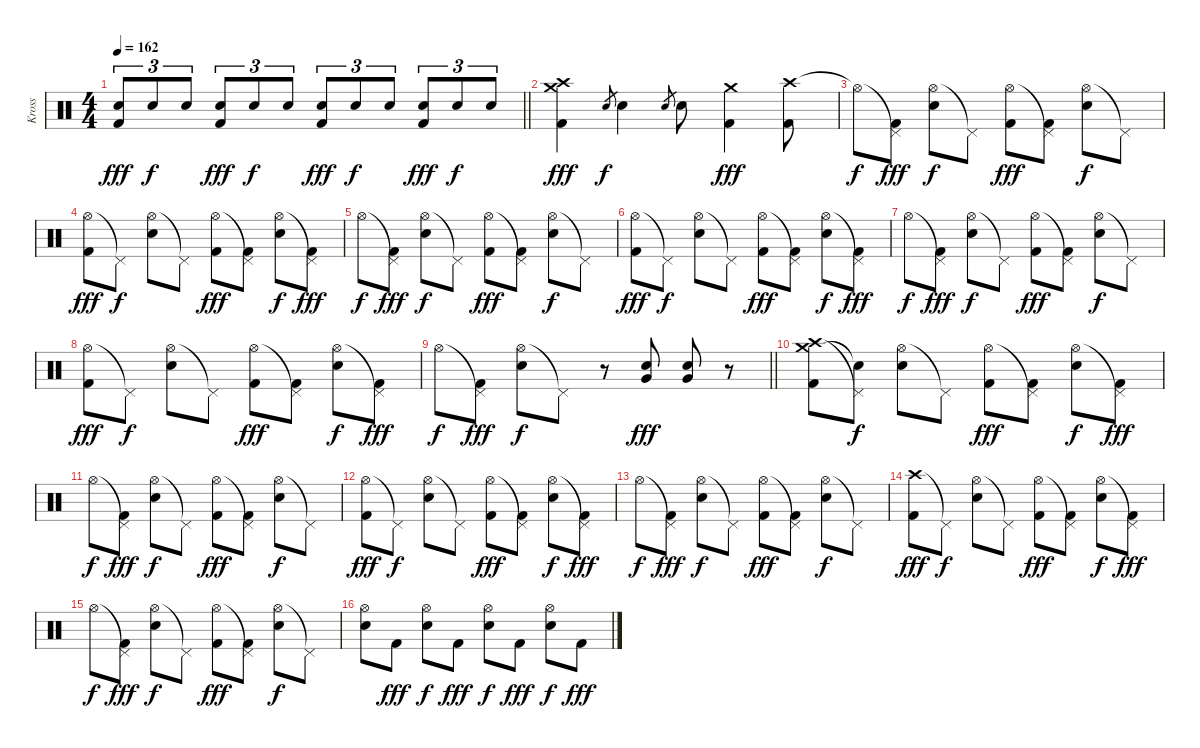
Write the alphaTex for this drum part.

\track ("Kross" "Kross") {instrument percussion}
\staff {score}
\articulation defaults
\ts (4 4)
\tempo 162
\clef neutral
\barLineRight lightlight
\ks c
("Electric Snare (hit)" "Kick (hit) 2").8{tu (3 2) dy fff} "Electric Snare (hit)".8{tu (3 2) dy f} "Electric Snare (hit)".8{tu (3 2)} ("Electric Snare (hit)" "Kick (hit) 2").8{tu (3 2) dy fff} "Electric Snare (hit)".8{tu (3 2) dy f} "Electric Snare (hit)".8{tu (3 2)} ("Electric Snare (hit)" "Kick (hit) 2").8{tu (3 2) dy fff} "Electric Snare (hit)".8{tu (3 2) dy f} "Electric Snare (hit)".8{tu (3 2)} ("Electric Snare (hit)" "Kick (hit) 2").8{tu (3 2) dy fff} "Electric Snare (hit)".8{tu (3 2) dy f} "Electric Snare (hit)".8{tu (3 2)} |
("Crash high (hit)" "Crash medium (hit)" "Kick (hit) 2").4{dy fff} "Electric Snare (hit)".8{gr dy f} "Electric Snare (hit)".4 "Electric Snare (hit)".8{gr} "Electric Snare (hit)".8 ("Crash medium (hit)" "Kick (hit) 2").4{dy fff} ("Crash high (hit)" "Kick (hit) 2").8 |
"Hi-Hat (open)"{t}.8{dy f} ("Pedal Hi-Hat (hit)"{t} "Kick (hit) 2").8{dy fff} ("Hi-Hat (open)" "Electric Snare (hit)").8{dy f} "Pedal Hi-Hat (hit)"{t}.8 ("Hi-Hat (open)" "Kick (hit) 2").8{dy fff} ("Pedal Hi-Hat (hit)"{t} "Kick (hit) 2").8 ("Hi-Hat (open)" "Electric Snare (hit)").8{dy f} "Pedal Hi-Hat (hit)"{t}.8 |
("Hi-Hat (open)" "Kick (hit) 2").8{dy fff} "Pedal Hi-Hat (hit)"{t}.8{dy f} ("Hi-Hat (open)" "Electric Snare (hit)").8 "Pedal Hi-Hat (hit)"{t}.8 ("Hi-Hat (open)" "Kick (hit) 2").8{dy fff} ("Pedal Hi-Hat (hit)"{t} "Kick (hit) 2").8 ("Hi-Hat (open)" "Electric Snare (hit)").8{dy f} ("Pedal Hi-Hat (hit)"{t} "Kick (hit) 2").8{dy fff} |
"Hi-Hat (open)".8{dy f} ("Pedal Hi-Hat (hit)"{t} "Kick (hit) 2").8{dy fff} ("Hi-Hat (open)" "Electric Snare (hit)").8{dy f} "Pedal Hi-Hat (hit)"{t}.8 ("Hi-Hat (open)" "Kick (hit) 2").8{dy fff} ("Pedal Hi-Hat (hit)"{t} "Kick (hit) 2").8 ("Hi-Hat (open)" "Electric Snare (hit)").8{dy f} "Pedal Hi-Hat (hit)"{t}.8 |
("Hi-Hat (open)" "Kick (hit) 2").8{dy fff} "Pedal Hi-Hat (hit)"{t}.8{dy f} ("Hi-Hat (open)" "Electric Snare (hit)").8 "Pedal Hi-Hat (hit)"{t}.8 ("Hi-Hat (open)" "Kick (hit) 2").8{dy fff} ("Pedal Hi-Hat (hit)"{t} "Kick (hit) 2").8 ("Hi-Hat (open)" "Electric Snare (hit)").8{dy f} ("Pedal Hi-Hat (hit)"{t} "Kick (hit) 2").8{dy fff} |
"Hi-Hat (open)".8{dy f} ("Pedal Hi-Hat (hit)"{t} "Kick (hit) 2").8{dy fff} ("Hi-Hat (open)" "Electric Snare (hit)").8{dy f} "Pedal Hi-Hat (hit)"{t}.8 ("Hi-Hat (open)" "Kick (hit) 2").8{dy fff} ("Pedal Hi-Hat (hit)"{t} "Kick (hit) 2").8 ("Hi-Hat (open)" "Electric Snare (hit)").8{dy f} "Pedal Hi-Hat (hit)"{t}.8 |
("Hi-Hat (open)" "Kick (hit) 2").8{dy fff} "Pedal Hi-Hat (hit)"{t}.8{dy f} ("Hi-Hat (open)" "Electric Snare (hit)").8 "Pedal Hi-Hat (hit)"{t}.8 ("Hi-Hat (open)" "Kick (hit) 2").8{dy fff} ("Pedal Hi-Hat (hit)"{t} "Kick (hit) 2").8 ("Hi-Hat (open)" "Electric Snare (hit)").8{dy f} ("Pedal Hi-Hat (hit)"{t} "Kick (hit) 2").8{dy fff} |
\barLineRight lightlight "Hi-Hat (open)".8{dy f}
("Pedal Hi-Hat (hit)"{t} "Kick (hit) 2").8{dy fff} ("Hi-Hat (open)" "Electric Snare (hit)").8{dy f} "Pedal Hi-Hat (hit)"{t}.8 r.8 ("Very Low Tom (hit)" "Electric Snare (hit)").8{dy fff} ("Very Low Tom (hit)" "Electric Snare (hit)").8 r.8 |
("Crash high (hit)" "Crash medium (hit)" "Kick (hit) 2").8 ("Pedal Hi-Hat (hit)"{t} "Snare (hit)"{t}).8{dy f} ("Hi-Hat (open)" "Electric Snare (hit)").8 "Pedal Hi-Hat (hit)"{t}.8 ("Hi-Hat (open)" "Kick (hit) 2").8{dy fff} ("Pedal Hi-Hat (hit)"{t} "Kick (hit) 2").8 ("Hi-Hat (open)" "Electric Snare (hit)").8{dy f} ("Pedal Hi-Hat (hit)"{t} "Kick (hit) 2").8{dy fff} |
"Hi-Hat (open)".8{dy f} ("Pedal Hi-Hat (hit)"{t} "Kick (hit) 2").8{dy fff} ("Hi-Hat (open)" "Electric Snare (hit)").8{dy f} "Pedal Hi-Hat (hit)"{t}.8 ("Hi-Hat (open)" "Kick (hit) 2").8{dy fff} ("Pedal Hi-Hat (hit)"{t} "Kick (hit) 2").8 ("Hi-Hat (open)" "Electric Snare (hit)").8{dy f} "Pedal Hi-Hat (hit)"{t}.8 |
("Hi-Hat (open)" "Kick (hit) 2").8{dy fff} "Pedal Hi-Hat (hit)"{t}.8{dy f} ("Hi-Hat (open)" "Electric Snare (hit)").8 "Pedal Hi-Hat (hit)"{t}.8 ("Hi-Hat (open)" "Kick (hit) 2").8{dy fff} ("Pedal Hi-Hat (hit)"{t} "Kick (hit) 2").8 ("Hi-Hat (open)" "Electric Snare (hit)").8{dy f} ("Pedal Hi-Hat (hit)"{t} "Kick (hit) 2").8{dy fff} |
"Hi-Hat (open)".8{dy f} ("Pedal Hi-Hat (hit)"{t} "Kick (hit) 2").8{dy fff} ("Hi-Hat (open)" "Electric Snare (hit)").8{dy f} "Pedal Hi-Hat (hit)"{t}.8 ("Hi-Hat (open)" "Kick (hit) 2").8{dy fff} ("Pedal Hi-Hat (hit)"{t} "Kick (hit) 2").8 ("Hi-Hat (open)" "Electric Snare (hit)").8{dy f} "Pedal Hi-Hat (hit)"{t}.8 |
("Crash high (hit)" "Kick (hit) 2").8{dy fff} "Pedal Hi-Hat (hit)"{t}.8{dy f} ("Hi-Hat (open)" "Electric Snare (hit)").8 "Pedal Hi-Hat (hit)"{t}.8 ("Hi-Hat (open)" "Kick (hit) 2").8{dy fff} ("Pedal Hi-Hat (hit)"{t} "Kick (hit) 2").8 ("Hi-Hat (open)" "Electric Snare (hit)").8{dy f} ("Pedal Hi-Hat (hit)"{t} "Kick (hit) 2").8{dy fff} |
"Hi-Hat (open)".8{dy f} ("Pedal Hi-Hat (hit)"{t} "Kick (hit) 2").8{dy fff} ("Hi-Hat (open)" "Electric Snare (hit)").8{dy f} "Pedal Hi-Hat (hit)"{t}.8 ("Hi-Hat (open)" "Kick (hit) 2").8{dy fff} ("Pedal Hi-Hat (hit)"{t} "Kick (hit) 2").8 ("Hi-Hat (open)" "Electric Snare (hit)").8{dy f} "Pedal Hi-Hat (hit)"{t}.8 |
("Hi-Hat (open)" "Electric Snare (hit)").8 "Kick (hit) 2".8{dy fff} ("Hi-Hat (open)" "Electric Snare (hit)").8{dy f} "Kick (hit) 2".8{dy fff} ("Hi-Hat (open)" "Electric Snare (hit)").8{dy f} "Kick (hit) 2".8{dy fff} ("Hi-Hat (open)" "Electric Snare (hit)").8{dy f} "Kick (hit) 2".8{dy fff}
